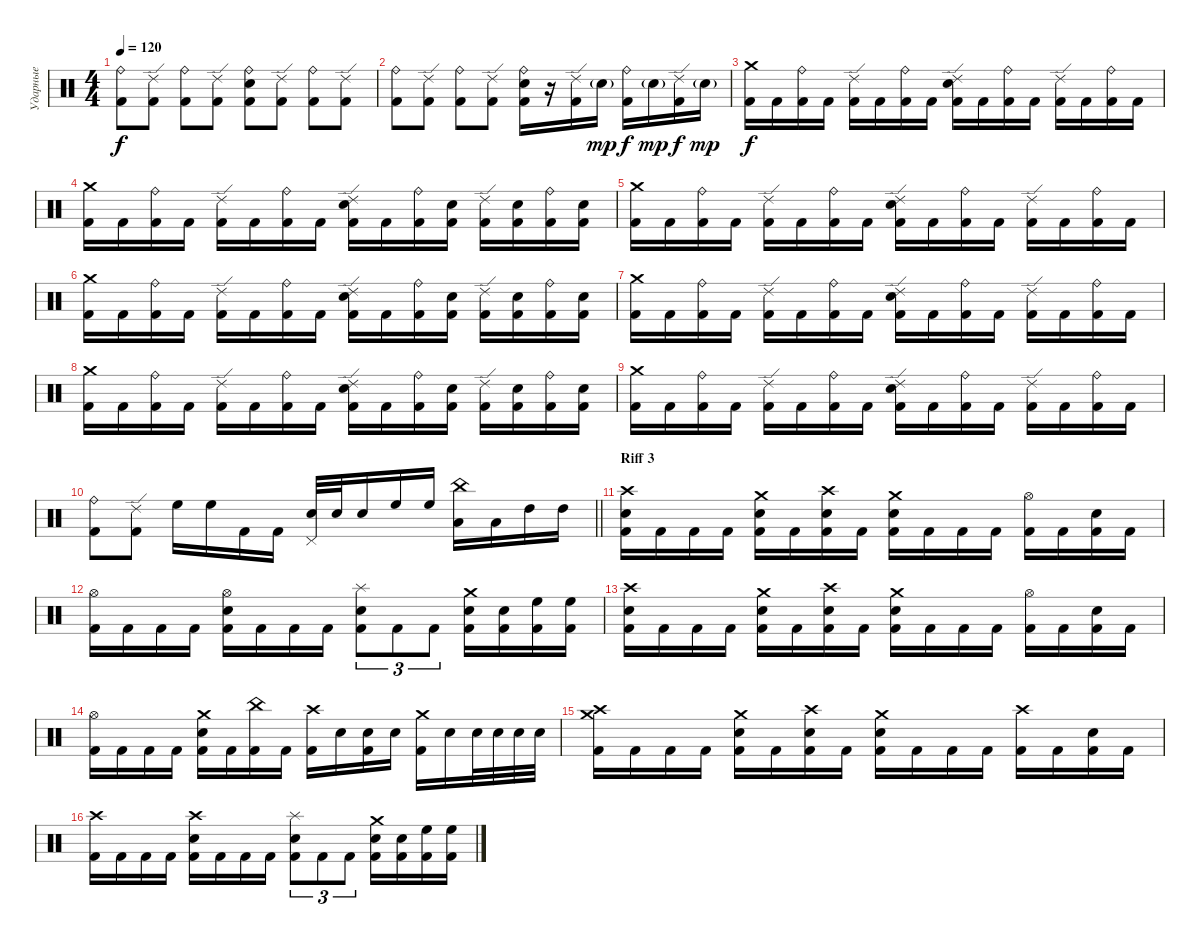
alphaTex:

\track ("Ударные" "Ударные") {instrument percussion}
\staff {score}
\articulation defaults
\ts (4 4)
\tempo 120
\clef neutral
\ks c
("Ride (bell)" "Kick (hit) 2").8{dy f} ("Ride (edge) 2" "Kick (hit) 2").8 ("Ride (bell)" "Kick (hit) 2").8 ("Ride (edge) 2" "Kick (hit) 2").8 ("Ride (bell)" "Electric Snare (hit)" "Kick (hit) 2").8 ("Ride (edge) 2" "Kick (hit) 2").8 ("Ride (bell)" "Kick (hit) 2").8 ("Ride (edge) 2" "Kick (hit) 2").8 |
("Ride (bell)" "Kick (hit) 2").8 ("Ride (edge) 2" "Kick (hit) 2").8 ("Ride (bell)" "Kick (hit) 2").8 ("Ride (edge) 2" "Kick (hit) 2").8 ("Ride (bell)" "Electric Snare (hit)" "Kick (hit) 2").16 r.16 ("Ride (edge) 2" "Kick (hit) 2").16 "Electric Snare (hit)"{g}.16{dy mp} ("Ride (bell)" "Kick (hit) 2").16{dy f} "Electric Snare (hit)"{g}.16{dy mp} ("Ride (edge) 2" "Kick (hit) 2").16{dy f} "Electric Snare (hit)"{g}.16{dy mp} |
("Crash medium (hit)" "Kick (hit) 2").16{dy f} "Kick (hit) 2".16 ("Ride (bell)" "Kick (hit) 2").16 "Kick (hit) 2".16 ("Ride (edge) 2" "Kick (hit) 2").16 "Kick (hit) 2".16 ("Ride (bell)" "Kick (hit) 2").16 "Kick (hit) 2".16 ("Ride (edge) 2" "Electric Snare (hit)" "Kick (hit) 2").16 "Kick (hit) 2".16 ("Ride (bell)" "Kick (hit) 2").16 "Kick (hit) 2".16 ("Ride (edge) 2" "Kick (hit) 2").16 "Kick (hit) 2".16 ("Ride (bell)" "Kick (hit) 2").16 "Kick (hit) 2".16 |
("Crash medium (hit)" "Kick (hit) 2").16 "Kick (hit) 2".16 ("Ride (bell)" "Kick (hit) 2").16 "Kick (hit) 2".16 ("Ride (edge) 2" "Kick (hit) 2").16 "Kick (hit) 2".16 ("Ride (bell)" "Kick (hit) 2").16 "Kick (hit) 2".16 ("Ride (edge) 2" "Electric Snare (hit)" "Kick (hit) 2").16 "Kick (hit) 2".16 ("Ride (bell)" "Kick (hit) 2").16 ("Electric Snare (hit)" "Kick (hit) 2").16 ("Ride (edge) 2" "Kick (hit) 2").16 ("Electric Snare (hit)" "Kick (hit) 2").16 ("Ride (bell)" "Kick (hit) 2").16 ("Electric Snare (hit)" "Kick (hit) 2").16 |
("Crash medium (hit)" "Kick (hit) 2").16 "Kick (hit) 2".16 ("Ride (bell)" "Kick (hit) 2").16 "Kick (hit) 2".16 ("Ride (edge) 2" "Kick (hit) 2").16 "Kick (hit) 2".16 ("Ride (bell)" "Kick (hit) 2").16 "Kick (hit) 2".16 ("Ride (edge) 2" "Electric Snare (hit)" "Kick (hit) 2").16 "Kick (hit) 2".16 ("Ride (bell)" "Kick (hit) 2").16 "Kick (hit) 2".16 ("Ride (edge) 2" "Kick (hit) 2").16 "Kick (hit) 2".16 ("Ride (bell)" "Kick (hit) 2").16 "Kick (hit) 2".16 |
("Crash medium (hit)" "Kick (hit) 2").16 "Kick (hit) 2".16 ("Ride (bell)" "Kick (hit) 2").16 "Kick (hit) 2".16 ("Ride (edge) 2" "Kick (hit) 2").16 "Kick (hit) 2".16 ("Ride (bell)" "Kick (hit) 2").16 "Kick (hit) 2".16 ("Ride (edge) 2" "Electric Snare (hit)" "Kick (hit) 2").16 "Kick (hit) 2".16 ("Ride (bell)" "Kick (hit) 2").16 ("Electric Snare (hit)" "Kick (hit) 2").16 ("Ride (edge) 2" "Kick (hit) 2").16 ("Electric Snare (hit)" "Kick (hit) 2").16 ("Ride (bell)" "Kick (hit) 2").16 ("Electric Snare (hit)" "Kick (hit) 2").16 |
("Crash medium (hit)" "Kick (hit) 2").16 "Kick (hit) 2".16 ("Ride (bell)" "Kick (hit) 2").16 "Kick (hit) 2".16 ("Ride (edge) 2" "Kick (hit) 2").16 "Kick (hit) 2".16 ("Ride (bell)" "Kick (hit) 2").16 "Kick (hit) 2".16 ("Ride (edge) 2" "Electric Snare (hit)" "Kick (hit) 2").16 "Kick (hit) 2".16 ("Ride (bell)" "Kick (hit) 2").16 "Kick (hit) 2".16 ("Ride (edge) 2" "Kick (hit) 2").16 "Kick (hit) 2".16 ("Ride (bell)" "Kick (hit) 2").16 "Kick (hit) 2".16 |
("Crash medium (hit)" "Kick (hit) 2").16 "Kick (hit) 2".16 ("Ride (bell)" "Kick (hit) 2").16 "Kick (hit) 2".16 ("Ride (edge) 2" "Kick (hit) 2").16 "Kick (hit) 2".16 ("Ride (bell)" "Kick (hit) 2").16 "Kick (hit) 2".16 ("Ride (edge) 2" "Electric Snare (hit)" "Kick (hit) 2").16 "Kick (hit) 2".16 ("Ride (bell)" "Kick (hit) 2").16 ("Electric Snare (hit)" "Kick (hit) 2").16 ("Ride (edge) 2" "Kick (hit) 2").16 ("Electric Snare (hit)" "Kick (hit) 2").16 ("Ride (bell)" "Kick (hit) 2").16 ("Electric Snare (hit)" "Kick (hit) 2").16 |
("Crash medium (hit)" "Kick (hit) 2").16 "Kick (hit) 2".16 ("Ride (bell)" "Kick (hit) 2").16 "Kick (hit) 2".16 ("Ride (edge) 2" "Kick (hit) 2").16 "Kick (hit) 2".16 ("Ride (bell)" "Kick (hit) 2").16 "Kick (hit) 2".16 ("Ride (edge) 2" "Electric Snare (hit)" "Kick (hit) 2").16 "Kick (hit) 2".16 ("Ride (bell)" "Kick (hit) 2").16 "Kick (hit) 2".16 ("Ride (edge) 2" "Kick (hit) 2").16 "Kick (hit) 2".16 ("Ride (bell)" "Kick (hit) 2").16 "Kick (hit) 2".16 |
\barLineRight lightlight
("Ride (bell)" "Kick (hit) 2").8 ("Ride (edge) 2" "Kick (hit) 2").8 "High Floor Tom (hit)".16 "High Floor Tom (hit)".16 "Kick (hit) 2".16 "Kick (hit) 2".16 ("Pedal Hi-Hat (hit)" "Electric Snare (hit)").32 "Electric Snare (hit)".32 "Electric Snare (hit)".16 "High Floor Tom (hit)".16 "High Floor Tom (hit)".16 ("China (hit)" "Low Tom (hit)").16 "Low Tom (hit)".16 "High Tom (hit)".16 "High Tom (hit)".16 |
\section ("" "Riff 3")
("Crash high (hit)" "Electric Snare (hit)" "Kick (hit) 2").16 "Kick (hit) 2".16 "Kick (hit) 2".16 "Kick (hit) 2".16 ("Crash medium (hit)" "Electric Snare (hit)" "Kick (hit) 2").16 "Kick (hit) 2".16 ("Crash high (hit)" "Electric Snare (hit)" "Kick (hit) 2").16 "Kick (hit) 2".16 ("Crash medium (hit)" "Electric Snare (hit)" "Kick (hit) 2").16 "Kick (hit) 2".16 "Kick (hit) 2".16 "Kick (hit) 2".16 ("Hi-Hat (open)" "Kick (hit) 2").16 "Kick (hit) 2".16 ("Electric Snare (hit)" "Kick (hit) 2").16 "Kick (hit) 2".16 |
("Hi-Hat (open)" "Kick (hit) 2").16 "Kick (hit) 2".16 "Kick (hit) 2".16 "Kick (hit) 2".16 ("Hi-Hat (open)" "Electric Snare (hit)" "Kick (hit) 2").16 "Kick (hit) 2".16 "Kick (hit) 2".16 "Kick (hit) 2".16 ("Splash (hit)" "Electric Snare (hit)" "Kick (hit) 2").8{tu (3 2)} "Kick (hit) 2".8{tu (3 2)} "Kick (hit) 2".8{tu (3 2)} ("Crash medium (hit)" "Electric Snare (hit)" "Kick (hit) 2").16 ("Electric Snare (hit)" "Kick (hit) 2").16 ("High Floor Tom (hit)" "Kick (hit) 2").16 ("High Floor Tom (hit)" "Kick (hit) 2").16 |
("Crash high (hit)" "Electric Snare (hit)" "Kick (hit) 2").16 "Kick (hit) 2".16 "Kick (hit) 2".16 "Kick (hit) 2".16 ("Crash medium (hit)" "Electric Snare (hit)" "Kick (hit) 2").16 "Kick (hit) 2".16 ("Crash high (hit)" "Electric Snare (hit)" "Kick (hit) 2").16 "Kick (hit) 2".16 ("Crash medium (hit)" "Electric Snare (hit)" "Kick (hit) 2").16 "Kick (hit) 2".16 "Kick (hit) 2".16 "Kick (hit) 2".16 ("Hi-Hat (open)" "Kick (hit) 2").16 "Kick (hit) 2".16 ("Electric Snare (hit)" "Kick (hit) 2").16 "Kick (hit) 2".16 |
("Hi-Hat (open)" "Kick (hit) 2").16 "Kick (hit) 2".16 "Kick (hit) 2".16 "Kick (hit) 2".16 ("Crash medium (hit)" "Electric Snare (hit)" "Kick (hit) 2").16 "Kick (hit) 2".16 ("China (hit)" "Kick (hit) 2").16 "Kick (hit) 2".16 ("Crash high (hit)" "Kick (hit) 2").16 "Electric Snare (hit)".16 ("Electric Snare (hit)" "Kick (hit) 2").16 "Electric Snare (hit)".16 ("Crash medium (hit)" "Kick (hit) 2").16 "Electric Snare (hit)".16 "Electric Snare (hit)".32 "Electric Snare (hit)".32 "Electric Snare (hit)".32 "Electric Snare (hit)".32 |
("Crash high (hit)" "Crash medium (hit)" "Kick (hit) 2").16 "Kick (hit) 2".16 "Kick (hit) 2".16 "Kick (hit) 2".16 ("Crash medium (hit)" "Electric Snare (hit)" "Kick (hit) 2").16 "Kick (hit) 2".16 ("Crash high (hit)" "Electric Snare (hit)" "Kick (hit) 2").16 "Kick (hit) 2".16 ("Crash medium (hit)" "Electric Snare (hit)" "Kick (hit) 2").16 "Kick (hit) 2".16 "Kick (hit) 2".16 "Kick (hit) 2".16 ("Crash high (hit)" "Kick (hit) 2").16 "Kick (hit) 2".16 ("Electric Snare (hit)" "Kick (hit) 2").16 "Kick (hit) 2".16 |
("Crash high (hit)" "Kick (hit) 2").16 "Kick (hit) 2".16 "Kick (hit) 2".16 "Kick (hit) 2".16 ("Crash high (hit)" "Electric Snare (hit)" "Kick (hit) 2").16 "Kick (hit) 2".16 "Kick (hit) 2".16 "Kick (hit) 2".16 ("Splash (hit)" "Electric Snare (hit)" "Kick (hit) 2").8{tu (3 2)} "Kick (hit) 2".8{tu (3 2)} "Kick (hit) 2".8{tu (3 2)} ("Crash medium (hit)" "Electric Snare (hit)" "Kick (hit) 2").16 ("Electric Snare (hit)" "Kick (hit) 2").16 ("High Floor Tom (hit)" "Kick (hit) 2").16 ("High Floor Tom (hit)" "Kick (hit) 2").16
